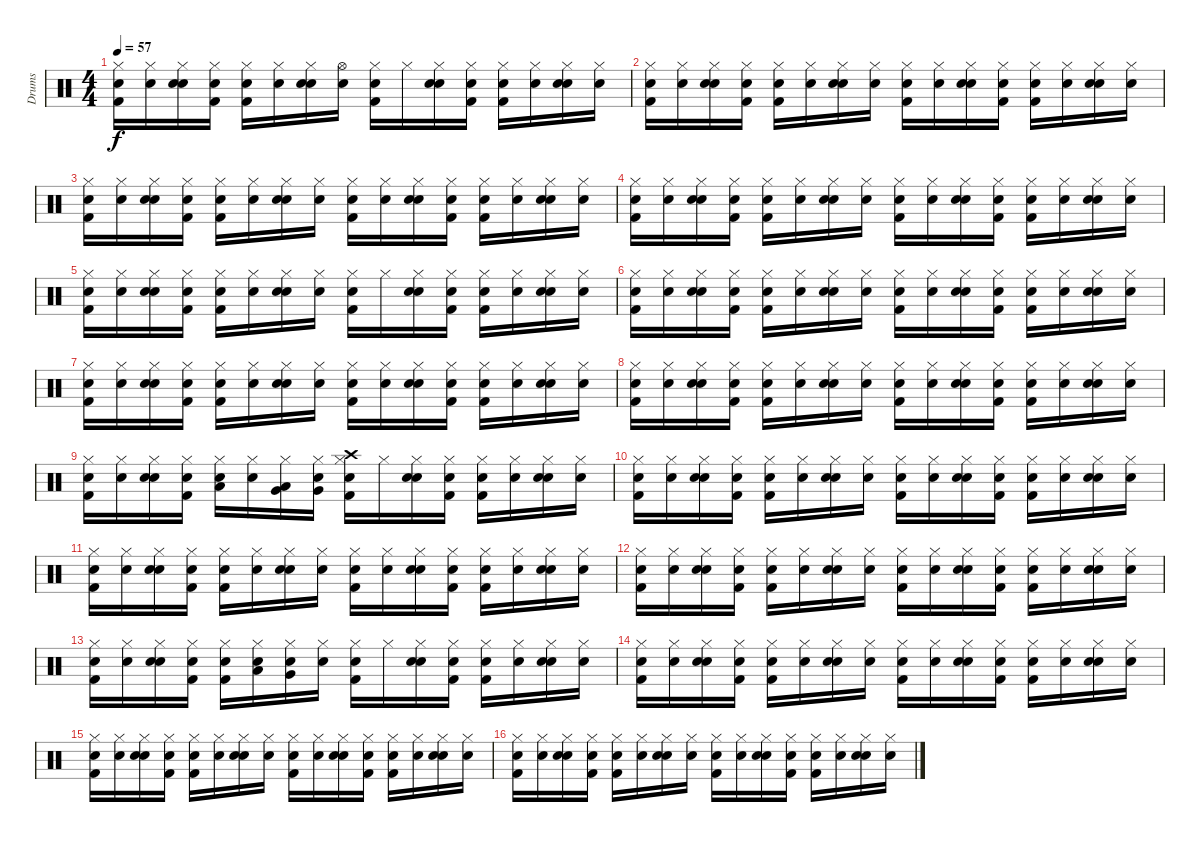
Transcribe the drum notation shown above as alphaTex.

\track ("Drums" "Drums") {instrument percussion}
\staff {score}
\articulation defaults
\ts (4 4)
\tempo 57
\clef neutral
\ks c
("Snare (hit)" "Kick (hit) 2" "Hi-Hat (closed)").16{dy f} ("Snare (hit)" "Hi-Hat (closed)").16 ("Snare (hit)" "Electric Snare (hit)" "Hi-Hat (closed)").16 ("Snare (hit)" "Kick (hit) 2" "Hi-Hat (closed)").16 ("Snare (hit)" "Kick (hit) 2" "Hi-Hat (closed)").16 ("Snare (hit)" "Hi-Hat (closed)").16 ("Snare (hit)" "Electric Snare (hit)" "Hi-Hat (closed)").16 ("Snare (hit)" "Hi-Hat (open)").16 ("Snare (hit)" "Kick (hit) 2" "Hi-Hat (closed)").16 "Hi-Hat (closed)".16 ("Snare (hit)" "Electric Snare (hit)" "Hi-Hat (closed)").16 ("Snare (hit)" "Kick (hit) 2" "Hi-Hat (closed)").16 ("Snare (hit)" "Hi-Hat (closed)" "Kick (hit) 2").16 ("Snare (hit)" "Hi-Hat (closed)").16 ("Snare (hit)" "Electric Snare (hit)" "Hi-Hat (closed)").16 ("Snare (hit)" "Hi-Hat (closed)").16 |
("Snare (hit)" "Kick (hit) 2" "Hi-Hat (closed)").16 ("Snare (hit)" "Hi-Hat (closed)").16 ("Snare (hit)" "Electric Snare (hit)" "Hi-Hat (closed)").16 ("Snare (hit)" "Kick (hit) 2" "Hi-Hat (closed)").16 ("Snare (hit)" "Kick (hit) 2" "Hi-Hat (closed)").16 ("Snare (hit)" "Hi-Hat (closed)").16 ("Snare (hit)" "Electric Snare (hit)" "Hi-Hat (closed)").16 ("Snare (hit)" "Hi-Hat (closed)").16 ("Snare (hit)" "Kick (hit) 2" "Hi-Hat (closed)").16 ("Snare (hit)" "Hi-Hat (closed)").16 ("Snare (hit)" "Electric Snare (hit)" "Hi-Hat (closed)").16 ("Snare (hit)" "Kick (hit) 2" "Hi-Hat (closed)").16 ("Snare (hit)" "Hi-Hat (closed)" "Kick (hit) 2").16 ("Snare (hit)" "Hi-Hat (closed)").16 ("Snare (hit)" "Electric Snare (hit)" "Hi-Hat (closed)").16 ("Snare (hit)" "Hi-Hat (closed)").16 |
("Snare (hit)" "Kick (hit) 2" "Hi-Hat (closed)").16 ("Snare (hit)" "Hi-Hat (closed)").16 ("Snare (hit)" "Electric Snare (hit)" "Hi-Hat (closed)").16 ("Snare (hit)" "Kick (hit) 2" "Hi-Hat (closed)").16 ("Snare (hit)" "Kick (hit) 2" "Hi-Hat (closed)").16 ("Snare (hit)" "Hi-Hat (closed)").16 ("Snare (hit)" "Electric Snare (hit)" "Hi-Hat (closed)").16 ("Snare (hit)" "Hi-Hat (closed)").16 ("Snare (hit)" "Kick (hit) 2" "Hi-Hat (closed)").16 ("Snare (hit)" "Hi-Hat (closed)").16 ("Snare (hit)" "Electric Snare (hit)" "Hi-Hat (closed)").16 ("Snare (hit)" "Kick (hit) 2" "Hi-Hat (closed)").16 ("Snare (hit)" "Hi-Hat (closed)" "Kick (hit) 2").16 ("Snare (hit)" "Hi-Hat (closed)").16 ("Snare (hit)" "Electric Snare (hit)" "Hi-Hat (closed)").16 ("Snare (hit)" "Hi-Hat (closed)").16 |
("Snare (hit)" "Kick (hit) 2" "Hi-Hat (closed)").16 ("Snare (hit)" "Hi-Hat (closed)").16 ("Snare (hit)" "Electric Snare (hit)" "Hi-Hat (closed)").16 ("Snare (hit)" "Kick (hit) 2" "Hi-Hat (closed)").16 ("Snare (hit)" "Kick (hit) 2" "Hi-Hat (closed)").16 ("Snare (hit)" "Hi-Hat (closed)").16 ("Snare (hit)" "Electric Snare (hit)" "Hi-Hat (closed)").16 ("Snare (hit)" "Hi-Hat (closed)").16 ("Snare (hit)" "Kick (hit) 2" "Hi-Hat (closed)").16 ("Snare (hit)" "Hi-Hat (closed)").16 ("Snare (hit)" "Electric Snare (hit)" "Hi-Hat (closed)").16 ("Snare (hit)" "Kick (hit) 2" "Hi-Hat (closed)").16 ("Snare (hit)" "Hi-Hat (closed)" "Kick (hit) 2").16 ("Snare (hit)" "Hi-Hat (closed)").16 ("Snare (hit)" "Electric Snare (hit)" "Hi-Hat (closed)").16 ("Snare (hit)" "Hi-Hat (closed)").16 |
("Snare (hit)" "Kick (hit) 2" "Hi-Hat (closed)").16 ("Snare (hit)" "Hi-Hat (closed)").16 ("Snare (hit)" "Electric Snare (hit)" "Hi-Hat (closed)").16 ("Snare (hit)" "Kick (hit) 2" "Hi-Hat (closed)").16 ("Snare (hit)" "Kick (hit) 2" "Hi-Hat (closed)").16 ("Snare (hit)" "Hi-Hat (closed)").16 ("Snare (hit)" "Electric Snare (hit)" "Hi-Hat (closed)").16 ("Snare (hit)" "Hi-Hat (closed)").16 ("Snare (hit)" "Kick (hit) 2" "Hi-Hat (closed)").16 "Hi-Hat (closed)".16 ("Snare (hit)" "Electric Snare (hit)" "Hi-Hat (closed)").16 ("Snare (hit)" "Kick (hit) 2" "Hi-Hat (closed)").16 ("Snare (hit)" "Hi-Hat (closed)" "Kick (hit) 2").16 ("Snare (hit)" "Hi-Hat (closed)").16 ("Snare (hit)" "Electric Snare (hit)" "Hi-Hat (closed)").16 ("Snare (hit)" "Hi-Hat (closed)").16 |
("Snare (hit)" "Kick (hit) 2" "Hi-Hat (closed)").16 ("Snare (hit)" "Hi-Hat (closed)").16 ("Snare (hit)" "Electric Snare (hit)" "Hi-Hat (closed)").16 ("Snare (hit)" "Kick (hit) 2" "Hi-Hat (closed)").16 ("Snare (hit)" "Kick (hit) 2" "Hi-Hat (closed)").16 ("Snare (hit)" "Hi-Hat (closed)").16 ("Snare (hit)" "Electric Snare (hit)" "Hi-Hat (closed)").16 ("Snare (hit)" "Hi-Hat (closed)").16 ("Snare (hit)" "Kick (hit) 2" "Hi-Hat (closed)").16 ("Snare (hit)" "Hi-Hat (closed)").16 ("Snare (hit)" "Electric Snare (hit)" "Hi-Hat (closed)").16 ("Snare (hit)" "Kick (hit) 2" "Hi-Hat (closed)").16 ("Snare (hit)" "Hi-Hat (closed)" "Kick (hit) 2").16 ("Snare (hit)" "Hi-Hat (closed)").16 ("Snare (hit)" "Electric Snare (hit)" "Hi-Hat (closed)").16 ("Snare (hit)" "Hi-Hat (closed)").16 |
("Snare (hit)" "Kick (hit) 2" "Hi-Hat (closed)").16 ("Snare (hit)" "Hi-Hat (closed)").16 ("Snare (hit)" "Electric Snare (hit)" "Hi-Hat (closed)").16 ("Snare (hit)" "Kick (hit) 2" "Hi-Hat (closed)").16 ("Snare (hit)" "Kick (hit) 2" "Hi-Hat (closed)").16 ("Snare (hit)" "Hi-Hat (closed)").16 ("Snare (hit)" "Electric Snare (hit)" "Hi-Hat (closed)").16 ("Snare (hit)" "Hi-Hat (closed)").16 ("Snare (hit)" "Kick (hit) 2" "Hi-Hat (closed)").16 ("Snare (hit)" "Hi-Hat (closed)").16 ("Snare (hit)" "Electric Snare (hit)" "Hi-Hat (closed)").16 ("Snare (hit)" "Kick (hit) 2" "Hi-Hat (closed)").16 ("Snare (hit)" "Hi-Hat (closed)" "Kick (hit) 2").16 ("Snare (hit)" "Hi-Hat (closed)").16 ("Snare (hit)" "Electric Snare (hit)" "Hi-Hat (closed)").16 ("Snare (hit)" "Hi-Hat (closed)").16 |
("Snare (hit)" "Kick (hit) 2" "Hi-Hat (closed)").16 ("Snare (hit)" "Hi-Hat (closed)").16 ("Snare (hit)" "Electric Snare (hit)" "Hi-Hat (closed)").16 ("Snare (hit)" "Kick (hit) 2" "Hi-Hat (closed)").16 ("Snare (hit)" "Kick (hit) 2" "Hi-Hat (closed)").16 ("Snare (hit)" "Hi-Hat (closed)").16 ("Snare (hit)" "Electric Snare (hit)" "Hi-Hat (closed)").16 ("Snare (hit)" "Hi-Hat (closed)").16 ("Snare (hit)" "Kick (hit) 2" "Hi-Hat (closed)").16 ("Snare (hit)" "Hi-Hat (closed)").16 ("Snare (hit)" "Electric Snare (hit)" "Hi-Hat (closed)").16 ("Snare (hit)" "Kick (hit) 2" "Hi-Hat (closed)").16 ("Snare (hit)" "Hi-Hat (closed)" "Kick (hit) 2").16 ("Snare (hit)" "Hi-Hat (closed)").16 ("Snare (hit)" "Electric Snare (hit)" "Hi-Hat (closed)").16 ("Snare (hit)" "Hi-Hat (closed)").16 |
("Snare (hit)" "Kick (hit) 2" "Hi-Hat (closed)").16 ("Snare (hit)" "Hi-Hat (closed)").16 ("Snare (hit)" "Electric Snare (hit)" "Hi-Hat (closed)").16 ("Snare (hit)" "Kick (hit) 2" "Hi-Hat (closed)").16 ("Snare (hit)" "Low Tom (hit)" "Hi-Hat (closed)").16 ("Snare (hit)" "Hi-Hat (closed)").16 ("Low Tom (hit)" "Very Low Tom (hit)" "Hi-Hat (closed)").16 ("Snare (hit)" "Hi-Hat (closed)" "Very Low Tom (hit)").16 ("Snare (hit)" "Kick (hit) 2" "Crash high (hit)" "Hi-Hat (closed)").16 "Hi-Hat (closed)".16 ("Snare (hit)" "Electric Snare (hit)" "Hi-Hat (closed)").16 ("Snare (hit)" "Kick (hit) 2" "Hi-Hat (closed)").16 ("Snare (hit)" "Hi-Hat (closed)" "Kick (hit) 2").16 ("Snare (hit)" "Hi-Hat (closed)").16 ("Snare (hit)" "Electric Snare (hit)" "Hi-Hat (closed)").16 ("Snare (hit)" "Hi-Hat (closed)").16 |
("Snare (hit)" "Kick (hit) 2" "Hi-Hat (closed)").16 ("Snare (hit)" "Hi-Hat (closed)").16 ("Snare (hit)" "Electric Snare (hit)" "Hi-Hat (closed)").16 ("Snare (hit)" "Kick (hit) 2" "Hi-Hat (closed)").16 ("Snare (hit)" "Kick (hit) 2" "Hi-Hat (closed)").16 ("Snare (hit)" "Hi-Hat (closed)").16 ("Snare (hit)" "Electric Snare (hit)" "Hi-Hat (closed)").16 ("Snare (hit)" "Hi-Hat (closed)").16 ("Snare (hit)" "Kick (hit) 2" "Hi-Hat (closed)").16 ("Snare (hit)" "Hi-Hat (closed)").16 ("Snare (hit)" "Electric Snare (hit)" "Hi-Hat (closed)").16 ("Snare (hit)" "Kick (hit) 2" "Hi-Hat (closed)").16 ("Snare (hit)" "Hi-Hat (closed)" "Kick (hit) 2").16 ("Snare (hit)" "Hi-Hat (closed)").16 ("Snare (hit)" "Electric Snare (hit)" "Hi-Hat (closed)").16 ("Snare (hit)" "Hi-Hat (closed)").16 |
("Snare (hit)" "Kick (hit) 2" "Hi-Hat (closed)").16 ("Snare (hit)" "Hi-Hat (closed)").16 ("Snare (hit)" "Electric Snare (hit)" "Hi-Hat (closed)").16 ("Snare (hit)" "Kick (hit) 2" "Hi-Hat (closed)").16 ("Snare (hit)" "Kick (hit) 2" "Hi-Hat (closed)").16 ("Snare (hit)" "Hi-Hat (closed)").16 ("Snare (hit)" "Electric Snare (hit)" "Hi-Hat (closed)").16 ("Snare (hit)" "Hi-Hat (closed)").16 ("Snare (hit)" "Kick (hit) 2" "Hi-Hat (closed)").16 ("Snare (hit)" "Hi-Hat (closed)").16 ("Snare (hit)" "Electric Snare (hit)" "Hi-Hat (closed)").16 ("Snare (hit)" "Kick (hit) 2" "Hi-Hat (closed)").16 ("Snare (hit)" "Hi-Hat (closed)" "Kick (hit) 2").16 ("Snare (hit)" "Hi-Hat (closed)").16 ("Snare (hit)" "Electric Snare (hit)" "Hi-Hat (closed)").16 ("Snare (hit)" "Hi-Hat (closed)").16 |
("Snare (hit)" "Kick (hit) 2" "Hi-Hat (closed)").16 ("Snare (hit)" "Hi-Hat (closed)").16 ("Snare (hit)" "Electric Snare (hit)" "Hi-Hat (closed)").16 ("Snare (hit)" "Kick (hit) 2" "Hi-Hat (closed)").16 ("Snare (hit)" "Kick (hit) 2" "Hi-Hat (closed)").16 ("Snare (hit)" "Hi-Hat (closed)").16 ("Snare (hit)" "Electric Snare (hit)" "Hi-Hat (closed)").16 ("Snare (hit)" "Hi-Hat (closed)").16 ("Snare (hit)" "Kick (hit) 2" "Hi-Hat (closed)").16 ("Snare (hit)" "Hi-Hat (closed)").16 ("Snare (hit)" "Electric Snare (hit)" "Hi-Hat (closed)").16 ("Snare (hit)" "Kick (hit) 2" "Hi-Hat (closed)").16 ("Snare (hit)" "Hi-Hat (closed)" "Kick (hit) 2").16 ("Snare (hit)" "Hi-Hat (closed)").16 ("Snare (hit)" "Electric Snare (hit)" "Hi-Hat (closed)").16 ("Snare (hit)" "Hi-Hat (closed)").16 |
("Snare (hit)" "Kick (hit) 2" "Hi-Hat (closed)").16 ("Snare (hit)" "Hi-Hat (closed)").16 ("Snare (hit)" "Electric Snare (hit)" "Hi-Hat (closed)").16 ("Snare (hit)" "Kick (hit) 2" "Hi-Hat (closed)").16 ("Snare (hit)" "Kick (hit) 2" "Hi-Hat (closed)").16 ("Snare (hit)" "Low Tom (hit)" "Hi-Hat (closed)").16 ("Snare (hit)" "Very Low Tom (hit)" "Hi-Hat (closed)").16 ("Snare (hit)" "Hi-Hat (closed)").16 ("Snare (hit)" "Kick (hit) 2" "Hi-Hat (closed)").16 "Hi-Hat (closed)".16 ("Snare (hit)" "Electric Snare (hit)" "Hi-Hat (closed)").16 ("Snare (hit)" "Kick (hit) 2" "Hi-Hat (closed)").16 ("Snare (hit)" "Hi-Hat (closed)" "Kick (hit) 2").16 ("Snare (hit)" "Hi-Hat (closed)").16 ("Snare (hit)" "Electric Snare (hit)" "Hi-Hat (closed)").16 ("Snare (hit)" "Hi-Hat (closed)").16 |
("Snare (hit)" "Kick (hit) 2" "Hi-Hat (closed)").16 ("Snare (hit)" "Hi-Hat (closed)").16 ("Snare (hit)" "Electric Snare (hit)" "Hi-Hat (closed)").16 ("Snare (hit)" "Kick (hit) 2" "Hi-Hat (closed)").16 ("Snare (hit)" "Kick (hit) 2" "Hi-Hat (closed)").16 ("Snare (hit)" "Hi-Hat (closed)").16 ("Snare (hit)" "Electric Snare (hit)" "Hi-Hat (closed)").16 ("Snare (hit)" "Hi-Hat (closed)").16 ("Snare (hit)" "Kick (hit) 2" "Hi-Hat (closed)").16 ("Snare (hit)" "Hi-Hat (closed)").16 ("Snare (hit)" "Electric Snare (hit)" "Hi-Hat (closed)").16 ("Snare (hit)" "Kick (hit) 2" "Hi-Hat (closed)").16 ("Snare (hit)" "Hi-Hat (closed)" "Kick (hit) 2").16 ("Snare (hit)" "Hi-Hat (closed)").16 ("Snare (hit)" "Electric Snare (hit)" "Hi-Hat (closed)").16 ("Snare (hit)" "Hi-Hat (closed)").16 |
("Snare (hit)" "Kick (hit) 2" "Hi-Hat (closed)").16 ("Snare (hit)" "Hi-Hat (closed)").16 ("Snare (hit)" "Electric Snare (hit)" "Hi-Hat (closed)").16 ("Snare (hit)" "Kick (hit) 2" "Hi-Hat (closed)").16 ("Snare (hit)" "Kick (hit) 2" "Hi-Hat (closed)").16 ("Snare (hit)" "Hi-Hat (closed)").16 ("Snare (hit)" "Electric Snare (hit)" "Hi-Hat (closed)").16 ("Snare (hit)" "Hi-Hat (closed)").16 ("Snare (hit)" "Kick (hit) 2" "Hi-Hat (closed)").16 ("Snare (hit)" "Hi-Hat (closed)").16 ("Snare (hit)" "Electric Snare (hit)" "Hi-Hat (closed)").16 ("Snare (hit)" "Kick (hit) 2" "Hi-Hat (closed)").16 ("Snare (hit)" "Hi-Hat (closed)" "Kick (hit) 2").16 ("Snare (hit)" "Hi-Hat (closed)").16 ("Snare (hit)" "Electric Snare (hit)" "Hi-Hat (closed)").16 ("Snare (hit)" "Hi-Hat (closed)").16 |
("Snare (hit)" "Kick (hit) 2" "Hi-Hat (closed)").16 ("Snare (hit)" "Hi-Hat (closed)").16 ("Snare (hit)" "Electric Snare (hit)" "Hi-Hat (closed)").16 ("Snare (hit)" "Kick (hit) 2" "Hi-Hat (closed)").16 ("Snare (hit)" "Kick (hit) 2" "Hi-Hat (closed)").16 ("Snare (hit)" "Hi-Hat (closed)").16 ("Snare (hit)" "Electric Snare (hit)" "Hi-Hat (closed)").16 ("Snare (hit)" "Hi-Hat (closed)").16 ("Snare (hit)" "Kick (hit) 2" "Hi-Hat (closed)").16 ("Snare (hit)" "Hi-Hat (closed)").16 ("Snare (hit)" "Electric Snare (hit)" "Hi-Hat (closed)").16 ("Snare (hit)" "Kick (hit) 2" "Hi-Hat (closed)").16 ("Snare (hit)" "Hi-Hat (closed)" "Kick (hit) 2").16 ("Snare (hit)" "Hi-Hat (closed)").16 ("Snare (hit)" "Electric Snare (hit)" "Hi-Hat (closed)").16 ("Snare (hit)" "Hi-Hat (closed)").16
